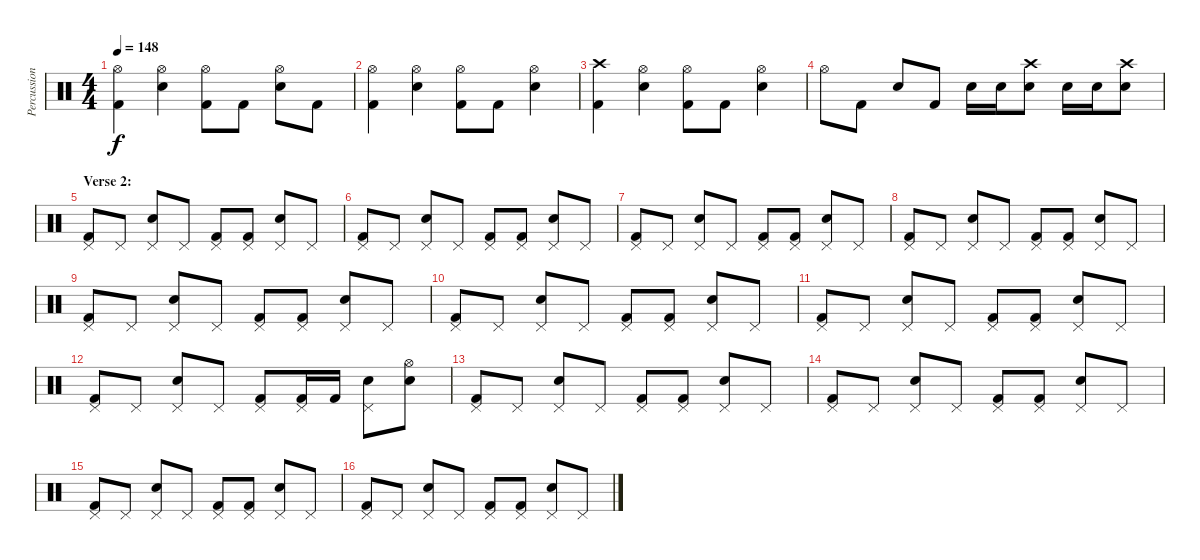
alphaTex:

\track ("Percussion" "Percussion") {instrument percussion}
\staff {score}
\articulation defaults
\ts (4 4)
\tempo 148
\clef neutral
\ks c
("Hi-Hat (open)" "Kick (hit) 2").4{dy f} ("Hi-Hat (open)" "Electric Snare (hit)").4 ("Hi-Hat (open)" "Kick (hit) 2").8 "Kick (hit) 2".8 ("Hi-Hat (open)" "Electric Snare (hit)").8 "Kick (hit) 2".8 |
("Hi-Hat (open)" "Kick (hit) 2").4 ("Hi-Hat (open)" "Electric Snare (hit)").4 ("Hi-Hat (open)" "Kick (hit) 2").8 "Kick (hit) 2".8 ("Hi-Hat (open)" "Electric Snare (hit)").4 |
("Crash high (hit)" "Kick (hit) 2").4 ("Hi-Hat (open)" "Electric Snare (hit)").4 ("Hi-Hat (open)" "Kick (hit) 2").8 "Kick (hit) 2".8 ("Hi-Hat (open)" "Electric Snare (hit)").4 |
"Hi-Hat (open)".8 "Kick (hit) 2".8 "Electric Snare (hit)".8 "Kick (hit) 2".8 "Electric Snare (hit)".16 "Electric Snare (hit)".16 ("Crash high (hit)" "Electric Snare (hit)").8 "Electric Snare (hit)".16 "Electric Snare (hit)".16 ("Crash high (hit)" "Electric Snare (hit)").8 |
\section ("" "Verse 2:")
("Pedal Hi-Hat (hit)" "Kick (hit) 2").8 "Pedal Hi-Hat (hit)".8 ("Pedal Hi-Hat (hit)" "Electric Snare (hit)").8 "Pedal Hi-Hat (hit)".8 ("Pedal Hi-Hat (hit)" "Kick (hit) 2").8 ("Pedal Hi-Hat (hit)" "Kick (hit) 2").8 ("Pedal Hi-Hat (hit)" "Electric Snare (hit)").8 "Pedal Hi-Hat (hit)".8 |
("Pedal Hi-Hat (hit)" "Kick (hit) 2").8 "Pedal Hi-Hat (hit)".8 ("Pedal Hi-Hat (hit)" "Electric Snare (hit)").8 "Pedal Hi-Hat (hit)".8 ("Pedal Hi-Hat (hit)" "Kick (hit) 2").8 ("Pedal Hi-Hat (hit)" "Kick (hit) 2").8 ("Pedal Hi-Hat (hit)" "Electric Snare (hit)").8 "Pedal Hi-Hat (hit)".8 |
("Pedal Hi-Hat (hit)" "Kick (hit) 2").8 "Pedal Hi-Hat (hit)".8 ("Pedal Hi-Hat (hit)" "Electric Snare (hit)").8 "Pedal Hi-Hat (hit)".8 ("Pedal Hi-Hat (hit)" "Kick (hit) 2").8 ("Pedal Hi-Hat (hit)" "Kick (hit) 2").8 ("Pedal Hi-Hat (hit)" "Electric Snare (hit)").8 "Pedal Hi-Hat (hit)".8 |
("Pedal Hi-Hat (hit)" "Kick (hit) 2").8 "Pedal Hi-Hat (hit)".8 ("Pedal Hi-Hat (hit)" "Electric Snare (hit)").8 "Pedal Hi-Hat (hit)".8 ("Pedal Hi-Hat (hit)" "Kick (hit) 2").8 ("Pedal Hi-Hat (hit)" "Kick (hit) 2").8 ("Pedal Hi-Hat (hit)" "Electric Snare (hit)").8 "Pedal Hi-Hat (hit)".8 |
("Pedal Hi-Hat (hit)" "Kick (hit) 2").8 "Pedal Hi-Hat (hit)".8 ("Pedal Hi-Hat (hit)" "Electric Snare (hit)").8 "Pedal Hi-Hat (hit)".8 ("Pedal Hi-Hat (hit)" "Kick (hit) 2").8 ("Pedal Hi-Hat (hit)" "Kick (hit) 2").8 ("Pedal Hi-Hat (hit)" "Electric Snare (hit)").8 "Pedal Hi-Hat (hit)".8 |
("Pedal Hi-Hat (hit)" "Kick (hit) 2").8 "Pedal Hi-Hat (hit)".8 ("Pedal Hi-Hat (hit)" "Electric Snare (hit)").8 "Pedal Hi-Hat (hit)".8 ("Pedal Hi-Hat (hit)" "Kick (hit) 2").8 ("Pedal Hi-Hat (hit)" "Kick (hit) 2").8 ("Pedal Hi-Hat (hit)" "Electric Snare (hit)").8 "Pedal Hi-Hat (hit)".8 |
("Pedal Hi-Hat (hit)" "Kick (hit) 2").8 "Pedal Hi-Hat (hit)".8 ("Pedal Hi-Hat (hit)" "Electric Snare (hit)").8 "Pedal Hi-Hat (hit)".8 ("Pedal Hi-Hat (hit)" "Kick (hit) 2").8 ("Pedal Hi-Hat (hit)" "Kick (hit) 2").8 ("Pedal Hi-Hat (hit)" "Electric Snare (hit)").8 "Pedal Hi-Hat (hit)".8 |
("Pedal Hi-Hat (hit)" "Kick (hit) 2").8 "Pedal Hi-Hat (hit)".8 ("Pedal Hi-Hat (hit)" "Electric Snare (hit)").8 "Pedal Hi-Hat (hit)".8 ("Pedal Hi-Hat (hit)" "Kick (hit) 2").8 ("Pedal Hi-Hat (hit)" "Kick (hit) 2").16 "Kick (hit) 2".16 ("Pedal Hi-Hat (hit)" "Electric Snare (hit)").8 ("Hi-Hat (open)" "Electric Snare (hit)").8 |
("Pedal Hi-Hat (hit)" "Kick (hit) 2").8 "Pedal Hi-Hat (hit)".8 ("Pedal Hi-Hat (hit)" "Electric Snare (hit)").8 "Pedal Hi-Hat (hit)".8 ("Pedal Hi-Hat (hit)" "Kick (hit) 2").8 ("Pedal Hi-Hat (hit)" "Kick (hit) 2").8 ("Pedal Hi-Hat (hit)" "Electric Snare (hit)").8 "Pedal Hi-Hat (hit)".8 |
("Pedal Hi-Hat (hit)" "Kick (hit) 2").8 "Pedal Hi-Hat (hit)".8 ("Pedal Hi-Hat (hit)" "Electric Snare (hit)").8 "Pedal Hi-Hat (hit)".8 ("Pedal Hi-Hat (hit)" "Kick (hit) 2").8 ("Pedal Hi-Hat (hit)" "Kick (hit) 2").8 ("Pedal Hi-Hat (hit)" "Electric Snare (hit)").8 "Pedal Hi-Hat (hit)".8 |
("Pedal Hi-Hat (hit)" "Kick (hit) 2").8 "Pedal Hi-Hat (hit)".8 ("Pedal Hi-Hat (hit)" "Electric Snare (hit)").8 "Pedal Hi-Hat (hit)".8 ("Pedal Hi-Hat (hit)" "Kick (hit) 2").8 ("Pedal Hi-Hat (hit)" "Kick (hit) 2").8 ("Pedal Hi-Hat (hit)" "Electric Snare (hit)").8 "Pedal Hi-Hat (hit)".8 |
("Pedal Hi-Hat (hit)" "Kick (hit) 2").8 "Pedal Hi-Hat (hit)".8 ("Pedal Hi-Hat (hit)" "Electric Snare (hit)").8 "Pedal Hi-Hat (hit)".8 ("Pedal Hi-Hat (hit)" "Kick (hit) 2").8 ("Pedal Hi-Hat (hit)" "Kick (hit) 2").8 ("Pedal Hi-Hat (hit)" "Electric Snare (hit)").8 "Pedal Hi-Hat (hit)".8
